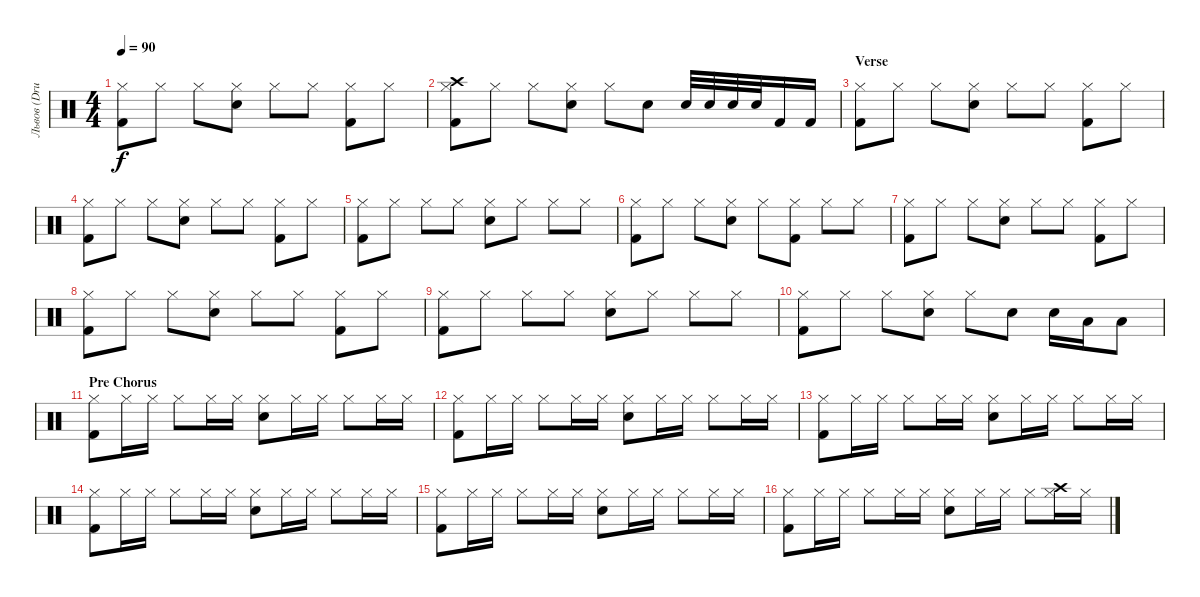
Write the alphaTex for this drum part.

\track ("Львов (Drums)" "Львов (Dru") {instrument percussion}
\staff {score}
\articulation defaults
\ts (4 4)
\tempo 90
\clef neutral
\ks c
("Kick (hit) 2" "Hi-Hat (closed)").8{dy f} "Hi-Hat (closed)".8 "Hi-Hat (closed)".8 ("Electric Snare (hit)" "Hi-Hat (closed)").8 "Hi-Hat (closed)".8 "Hi-Hat (closed)".8 ("Kick (hit) 2" "Hi-Hat (closed)").8 "Hi-Hat (closed)".8 |
("Kick (hit) 2" "Crash high (hit)" "Hi-Hat (closed)").8 "Hi-Hat (closed)".8 "Hi-Hat (closed)".8 ("Electric Snare (hit)" "Hi-Hat (closed)").8 "Hi-Hat (closed)".8 "Electric Snare (hit)".8 "Electric Snare (hit)".32 "Electric Snare (hit)".32 "Electric Snare (hit)".32 "Electric Snare (hit)".32 "Kick (hit) 2".16 "Kick (hit) 2".16 |
\section ("" "Verse")
("Kick (hit) 2" "Hi-Hat (closed)").8 "Hi-Hat (closed)".8 "Hi-Hat (closed)".8 ("Electric Snare (hit)" "Hi-Hat (closed)").8 "Hi-Hat (closed)".8 "Hi-Hat (closed)".8 ("Kick (hit) 2" "Hi-Hat (closed)").8 "Hi-Hat (closed)".8 |
("Kick (hit) 2" "Hi-Hat (closed)").8 "Hi-Hat (closed)".8 "Hi-Hat (closed)".8 ("Electric Snare (hit)" "Hi-Hat (closed)").8 "Hi-Hat (closed)".8 "Hi-Hat (closed)".8 ("Kick (hit) 2" "Hi-Hat (closed)").8 "Hi-Hat (closed)".8 |
("Kick (hit) 2" "Hi-Hat (closed)").8 "Hi-Hat (closed)".8 "Hi-Hat (closed)".8 "Hi-Hat (closed)".8 ("Electric Snare (hit)" "Hi-Hat (closed)").8 "Hi-Hat (closed)".8 "Hi-Hat (closed)".8 "Hi-Hat (closed)".8 |
("Kick (hit) 2" "Hi-Hat (closed)").8 "Hi-Hat (closed)".8 "Hi-Hat (closed)".8 ("Electric Snare (hit)" "Hi-Hat (closed)").8 "Hi-Hat (closed)".8 ("Kick (hit) 2" "Hi-Hat (closed)").8 "Hi-Hat (closed)".8 "Hi-Hat (closed)".8 |
("Kick (hit) 2" "Hi-Hat (closed)").8 "Hi-Hat (closed)".8 "Hi-Hat (closed)".8 ("Electric Snare (hit)" "Hi-Hat (closed)").8 "Hi-Hat (closed)".8 "Hi-Hat (closed)".8 ("Kick (hit) 2" "Hi-Hat (closed)").8 "Hi-Hat (closed)".8 |
("Kick (hit) 2" "Hi-Hat (closed)").8 "Hi-Hat (closed)".8 "Hi-Hat (closed)".8 ("Electric Snare (hit)" "Hi-Hat (closed)").8 "Hi-Hat (closed)".8 "Hi-Hat (closed)".8 ("Kick (hit) 2" "Hi-Hat (closed)").8 "Hi-Hat (closed)".8 |
("Kick (hit) 2" "Hi-Hat (closed)").8 "Hi-Hat (closed)".8 "Hi-Hat (closed)".8 "Hi-Hat (closed)".8 ("Electric Snare (hit)" "Hi-Hat (closed)").8 "Hi-Hat (closed)".8 "Hi-Hat (closed)".8 "Hi-Hat (closed)".8 |
("Kick (hit) 2" "Hi-Hat (closed)").8 "Hi-Hat (closed)".8 "Hi-Hat (closed)".8 ("Electric Snare (hit)" "Hi-Hat (closed)").8 "Hi-Hat (closed)".8 "Electric Snare (hit)".8 "Electric Snare (hit)".16 "Low Tom (hit)".16 "Low Tom (hit)".8 |
\section ("" "Pre Chorus")
("Kick (hit) 2" "Hi-Hat (closed)").8 "Hi-Hat (closed)".16 "Hi-Hat (closed)".16 "Hi-Hat (closed)".8 "Hi-Hat (closed)".16 "Hi-Hat (closed)".16 ("Electric Snare (hit)" "Hi-Hat (closed)").8 "Hi-Hat (closed)".16 "Hi-Hat (closed)".16 "Hi-Hat (closed)".8 "Hi-Hat (closed)".16 "Hi-Hat (closed)".16 |
("Kick (hit) 2" "Hi-Hat (closed)").8 "Hi-Hat (closed)".16 "Hi-Hat (closed)".16 "Hi-Hat (closed)".8 "Hi-Hat (closed)".16 "Hi-Hat (closed)".16 ("Electric Snare (hit)" "Hi-Hat (closed)").8 "Hi-Hat (closed)".16 "Hi-Hat (closed)".16 "Hi-Hat (closed)".8 "Hi-Hat (closed)".16 "Hi-Hat (closed)".16 |
("Kick (hit) 2" "Hi-Hat (closed)").8 "Hi-Hat (closed)".16 "Hi-Hat (closed)".16 "Hi-Hat (closed)".8 "Hi-Hat (closed)".16 "Hi-Hat (closed)".16 ("Electric Snare (hit)" "Hi-Hat (closed)").8 "Hi-Hat (closed)".16 "Hi-Hat (closed)".16 "Hi-Hat (closed)".8 "Hi-Hat (closed)".16 "Hi-Hat (closed)".16 |
("Kick (hit) 2" "Hi-Hat (closed)").8 "Hi-Hat (closed)".16 "Hi-Hat (closed)".16 "Hi-Hat (closed)".8 "Hi-Hat (closed)".16 "Hi-Hat (closed)".16 ("Electric Snare (hit)" "Hi-Hat (closed)").8 "Hi-Hat (closed)".16 "Hi-Hat (closed)".16 "Hi-Hat (closed)".8 "Hi-Hat (closed)".16 "Hi-Hat (closed)".16 |
("Kick (hit) 2" "Hi-Hat (closed)").8 "Hi-Hat (closed)".16 "Hi-Hat (closed)".16 "Hi-Hat (closed)".8 "Hi-Hat (closed)".16 "Hi-Hat (closed)".16 ("Electric Snare (hit)" "Hi-Hat (closed)").8 "Hi-Hat (closed)".16 "Hi-Hat (closed)".16 "Hi-Hat (closed)".8 "Hi-Hat (closed)".16 "Hi-Hat (closed)".16 |
("Kick (hit) 2" "Hi-Hat (closed)").8 "Hi-Hat (closed)".16 "Hi-Hat (closed)".16 "Hi-Hat (closed)".8 "Hi-Hat (closed)".16 "Hi-Hat (closed)".16 ("Electric Snare (hit)" "Hi-Hat (closed)").8 "Hi-Hat (closed)".16 "Hi-Hat (closed)".16 "Hi-Hat (closed)".8 ("Crash high (hit)" "Hi-Hat (closed)").16 "Hi-Hat (closed)".16
